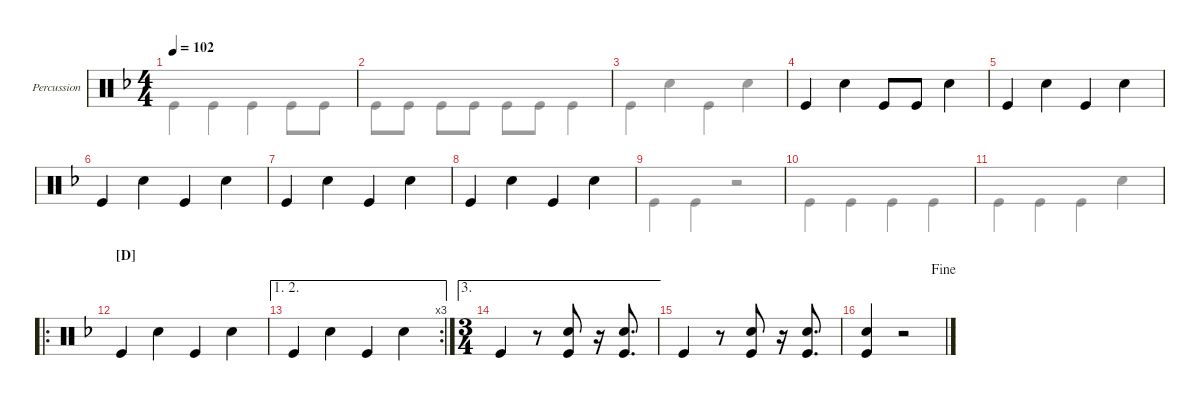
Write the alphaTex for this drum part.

\defaultSystemsLayout 4
\hideDynamics
\bracketExtendMode groupsimilarinstruments
\firstSystemTrackNameMode fullname
\otherSystemsTrackNameMode fullname
\firstSystemTrackNameOrientation horizontal
\otherSystemsTrackNameOrientation horizontal
\track ("Percussion" "Perc.") {instrument percussion}
\staff {score}
\articulation defaults
\voice
\ts (4 4)
\tempo 102
\clef neutral
\ks dminor
|
|
|
"Kick (hit)".4 "Snare (hit) 2".4 "Kick (hit)".8 "Kick (hit)".8 "Snare (hit) 2".4 |
"Kick (hit)".4 "Snare (hit) 2".4 "Kick (hit)".4 "Snare (hit) 2".4 |
"Kick (hit)".4 "Snare (hit) 2".4 "Kick (hit)".4 "Snare (hit) 2".4 |
"Kick (hit)".4 "Snare (hit) 2".4 "Kick (hit)".4 "Snare (hit) 2".4 |
"Kick (hit)".4 "Snare (hit) 2".4 "Kick (hit)".4 "Snare (hit) 2".4 |
|
|
|
\ro
\section ("D" "")
"Kick (hit)".4 "Snare (hit) 2".4 "Kick (hit)".4 "Snare (hit) 2".4 |
\ae (1 2)
\rc 3 "Kick (hit)".4 "Snare (hit) 2".4 "Kick (hit)".4 "Snare (hit) 2".4
|
\ae 3
\ts (3 4)
"Kick (hit)".4 r.8 ("Snare (hit) 2" "Kick (hit)").8 r.16 ("Kick (hit)" "Snare (hit) 2").8{d} |
"Kick (hit)".4 r.8 ("Snare (hit) 2" "Kick (hit)").8 r.16 ("Kick (hit)" "Snare (hit) 2").8{d} |
\jump fine
("Snare (hit) 2" "Kick (hit)").4 r.2
\voice
\clef neutral
\ottava regular
\simile none
\ks dminor "Kick (hit)".4{dy mf} "Kick (hit)".4 "Kick (hit)".4 "Kick (hit)".8 "Kick (hit)".8
|
"Kick (hit)".8 "Kick (hit)".8 "Kick (hit)".8 "Kick (hit)".8 "Kick (hit)".8 "Kick (hit)".8 "Kick (hit)".4 |
"Kick (hit)".4 "Snare (hit) 2".4 "Kick (hit)".4 "Snare (hit) 2".4 |
|
|
|
|
|
"Kick (hit)".4 "Kick (hit)".4 r.2 |
"Kick (hit)".4 "Kick (hit)".4 "Kick (hit)".4 "Kick (hit)".4 |
"Kick (hit)".4 "Kick (hit)".4 "Kick (hit)".4 "Snare (hit) 2".4 |
|
|
|
|
